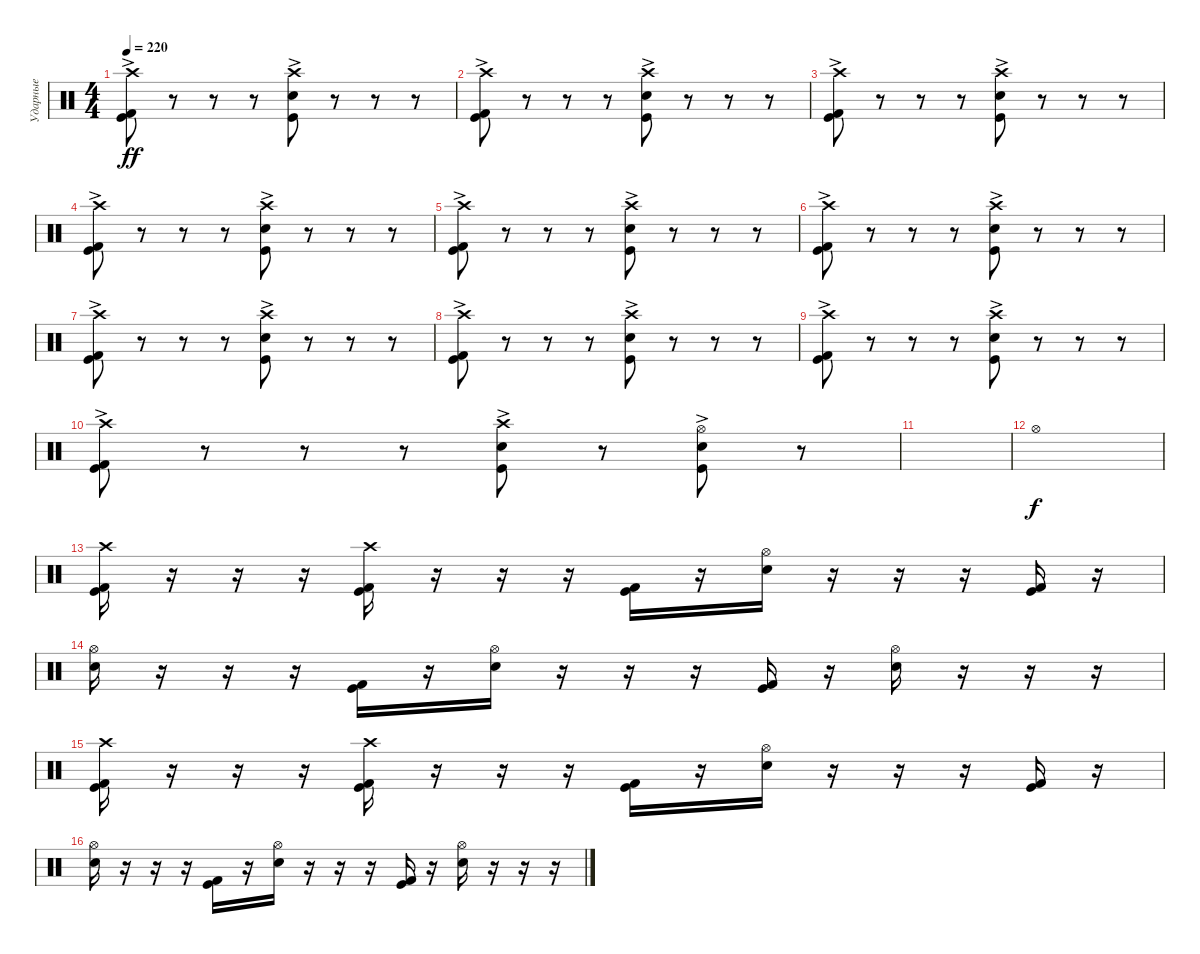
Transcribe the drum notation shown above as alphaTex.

\track ("Ударные" "Ударные") {instrument percussion}
\staff {score}
\articulation defaults
\ts (4 4)
\tempo 220
\clef neutral
\ks c
("Crash high (hit)"{ac} "Kick (hit)"{ac} "Kick (hit) 2"{ac}).8{dy ff} r.8 r.8 r.8 ("Crash high (hit)"{ac} "Electric Snare (hit)"{ac} "Kick (hit)").8 r.8 r.8 r.8 |
("Crash high (hit)"{ac} "Kick (hit)"{ac} "Kick (hit) 2"{ac}).8 r.8 r.8 r.8 ("Crash high (hit)"{ac} "Electric Snare (hit)"{ac} "Kick (hit)").8 r.8 r.8 r.8 |
("Crash high (hit)"{ac} "Kick (hit)"{ac} "Kick (hit) 2"{ac}).8 r.8 r.8 r.8 ("Crash high (hit)"{ac} "Electric Snare (hit)"{ac} "Kick (hit)").8 r.8 r.8 r.8 |
("Crash high (hit)"{ac} "Kick (hit)"{ac} "Kick (hit) 2"{ac}).8 r.8 r.8 r.8 ("Crash high (hit)"{ac} "Electric Snare (hit)"{ac} "Kick (hit)").8 r.8 r.8 r.8 |
("Crash high (hit)"{ac} "Kick (hit)"{ac} "Kick (hit) 2"{ac}).8 r.8 r.8 r.8 ("Crash high (hit)"{ac} "Electric Snare (hit)"{ac} "Kick (hit)").8 r.8 r.8 r.8 |
("Crash high (hit)"{ac} "Kick (hit)"{ac} "Kick (hit) 2"{ac}).8 r.8 r.8 r.8 ("Crash high (hit)"{ac} "Electric Snare (hit)"{ac} "Kick (hit)").8 r.8 r.8 r.8 |
("Crash high (hit)"{ac} "Kick (hit)"{ac} "Kick (hit) 2"{ac}).8 r.8 r.8 r.8 ("Crash high (hit)"{ac} "Electric Snare (hit)"{ac} "Kick (hit)").8 r.8 r.8 r.8 |
("Crash high (hit)"{ac} "Kick (hit)"{ac} "Kick (hit) 2"{ac}).8 r.8 r.8 r.8 ("Crash high (hit)"{ac} "Electric Snare (hit)"{ac} "Kick (hit)").8 r.8 r.8 r.8 |
("Crash high (hit)"{ac} "Kick (hit)"{ac} "Kick (hit) 2"{ac}).8 r.8 r.8 r.8 ("Crash high (hit)"{ac} "Electric Snare (hit)"{ac} "Kick (hit)").8 r.8 r.8 r.8 |
("Crash high (hit)"{ac} "Kick (hit)"{ac} "Kick (hit) 2"{ac}).8 r.8 r.8 r.8 ("Crash high (hit)"{ac} "Electric Snare (hit)"{ac} "Kick (hit)").8 r.8 ("Hi-Hat (open)" "Electric Snare (hit)"{ac} "Kick (hit)"{ac}).8 r.8 |
|
"Hi-Hat (open)".1{dy f} |
("Crash high (hit)" "Kick (hit)" "Kick (hit) 2").16 r.16 r.16 r.16 ("Crash high (hit)" "Kick (hit)" "Kick (hit) 2").16 r.16 r.16 r.16 ("Kick (hit)" "Kick (hit) 2").16 r.16 ("Hi-Hat (open)" "Electric Snare (hit)").16 r.16 r.16 r.16 ("Kick (hit)" "Kick (hit) 2").16 r.16 |
("Hi-Hat (open)" "Electric Snare (hit)").16 r.16 r.16 r.16 ("Kick (hit)" "Kick (hit) 2").16 r.16 ("Hi-Hat (open)" "Electric Snare (hit)").16 r.16 r.16 r.16 ("Kick (hit)" "Kick (hit) 2").16 r.16 ("Hi-Hat (open)" "Electric Snare (hit)").16 r.16 r.16 r.16 |
("Crash high (hit)" "Kick (hit)" "Kick (hit) 2").16 r.16 r.16 r.16 ("Crash high (hit)" "Kick (hit)" "Kick (hit) 2").16 r.16 r.16 r.16 ("Kick (hit)" "Kick (hit) 2").16 r.16 ("Hi-Hat (open)" "Electric Snare (hit)").16 r.16 r.16 r.16 ("Kick (hit)" "Kick (hit) 2").16 r.16 |
("Hi-Hat (open)" "Electric Snare (hit)").16 r.16 r.16 r.16 ("Kick (hit)" "Kick (hit) 2").16 r.16 ("Hi-Hat (open)" "Electric Snare (hit)").16 r.16 r.16 r.16 ("Kick (hit)" "Kick (hit) 2").16 r.16 ("Hi-Hat (open)" "Electric Snare (hit)").16 r.16 r.16 r.16
